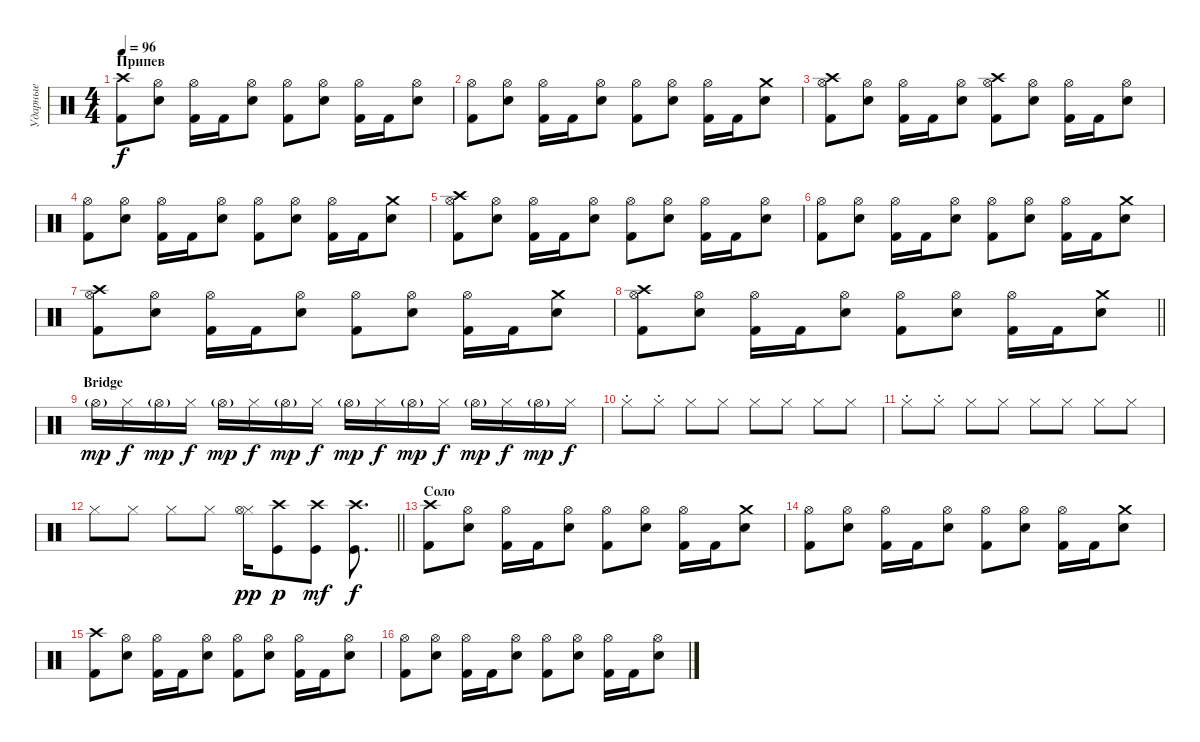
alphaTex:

\track ("Ударные" "Ударные") {instrument percussion}
\staff {score}
\articulation defaults
\ts (4 4)
\section ("" "Припев")
\tempo 96
\clef neutral
\ks c
("Crash high (hit)" "Kick (hit) 2").8{dy f} ("Hi-Hat (open)" "Electric Snare (hit)").8 ("Hi-Hat (open)" "Kick (hit) 2").16 "Kick (hit) 2".16 ("Hi-Hat (open)" "Electric Snare (hit)").8 ("Hi-Hat (open)" "Kick (hit) 2").8 ("Hi-Hat (open)" "Electric Snare (hit)").8 ("Hi-Hat (open)" "Kick (hit) 2").16 "Kick (hit) 2".16 ("Hi-Hat (open)" "Electric Snare (hit)").8 |
("Hi-Hat (open)" "Kick (hit) 2").8 ("Hi-Hat (open)" "Electric Snare (hit)").8 ("Hi-Hat (open)" "Kick (hit) 2").16 "Kick (hit) 2".16 ("Hi-Hat (open)" "Electric Snare (hit)").8 ("Hi-Hat (open)" "Kick (hit) 2").8 ("Hi-Hat (open)" "Electric Snare (hit)").8 ("Hi-Hat (open)" "Kick (hit) 2").16 "Kick (hit) 2".16 ("Crash medium (hit)" "Electric Snare (hit)").8 |
("Hi-Hat (open)" "Crash high (hit)" "Kick (hit) 2").8 ("Hi-Hat (open)" "Electric Snare (hit)").8 ("Hi-Hat (open)" "Kick (hit) 2").16 "Kick (hit) 2".16 ("Hi-Hat (open)" "Electric Snare (hit)").8 ("Hi-Hat (open)" "Crash high (hit)" "Kick (hit) 2").8 ("Hi-Hat (open)" "Electric Snare (hit)").8 ("Hi-Hat (open)" "Kick (hit) 2").16 "Kick (hit) 2".16 ("Hi-Hat (open)" "Electric Snare (hit)").8 |
("Hi-Hat (open)" "Kick (hit) 2").8 ("Hi-Hat (open)" "Electric Snare (hit)").8 ("Hi-Hat (open)" "Kick (hit) 2").16 "Kick (hit) 2".16 ("Hi-Hat (open)" "Electric Snare (hit)").8 ("Hi-Hat (open)" "Kick (hit) 2").8 ("Hi-Hat (open)" "Electric Snare (hit)").8 ("Hi-Hat (open)" "Kick (hit) 2").16 "Kick (hit) 2".16 ("Crash medium (hit)" "Electric Snare (hit)").8 |
("Hi-Hat (open)" "Crash high (hit)" "Kick (hit) 2").8 ("Hi-Hat (open)" "Electric Snare (hit)").8 ("Hi-Hat (open)" "Kick (hit) 2").16 "Kick (hit) 2".16 ("Hi-Hat (open)" "Electric Snare (hit)").8 ("Hi-Hat (open)" "Kick (hit) 2").8 ("Hi-Hat (open)" "Electric Snare (hit)").8 ("Hi-Hat (open)" "Kick (hit) 2").16 "Kick (hit) 2".16 ("Hi-Hat (open)" "Electric Snare (hit)").8 |
("Hi-Hat (open)" "Kick (hit) 2").8 ("Hi-Hat (open)" "Electric Snare (hit)").8 ("Hi-Hat (open)" "Kick (hit) 2").16 "Kick (hit) 2".16 ("Hi-Hat (open)" "Electric Snare (hit)").8 ("Hi-Hat (open)" "Kick (hit) 2").8 ("Hi-Hat (open)" "Electric Snare (hit)").8 ("Hi-Hat (open)" "Kick (hit) 2").16 "Kick (hit) 2".16 ("Crash medium (hit)" "Electric Snare (hit)").8 |
("Hi-Hat (open)" "Crash high (hit)" "Kick (hit) 2").8 ("Hi-Hat (open)" "Electric Snare (hit)").8 ("Hi-Hat (open)" "Kick (hit) 2").16 "Kick (hit) 2".16 ("Hi-Hat (open)" "Electric Snare (hit)").8 ("Hi-Hat (open)" "Kick (hit) 2").8 ("Hi-Hat (open)" "Electric Snare (hit)").8 ("Hi-Hat (open)" "Kick (hit) 2").16 "Kick (hit) 2".16 ("Crash medium (hit)" "Electric Snare (hit)").8 |
\barLineRight lightlight
("Hi-Hat (open)" "Crash high (hit)" "Kick (hit) 2").8 ("Hi-Hat (open)" "Electric Snare (hit)").8 ("Hi-Hat (open)" "Kick (hit) 2").16 "Kick (hit) 2".16 ("Hi-Hat (open)" "Electric Snare (hit)").8 ("Hi-Hat (open)" "Kick (hit) 2").8 ("Hi-Hat (open)" "Electric Snare (hit)").8 ("Hi-Hat (open)" "Kick (hit) 2").16 "Kick (hit) 2".16 ("Crash medium (hit)" "Electric Snare (hit)").8 |
\section ("" "Bridge")
"Hi-Hat (open)"{g}.16{dy mp} "Hi-Hat (closed)".16{dy f} "Hi-Hat (open)"{g}.16{dy mp} "Hi-Hat (closed)".16{dy f} "Hi-Hat (open)"{g}.16{dy mp} "Hi-Hat (closed)".16{dy f} "Hi-Hat (open)"{g}.16{dy mp} "Hi-Hat (closed)".16{dy f} "Hi-Hat (open)"{g}.16{dy mp} "Hi-Hat (closed)".16{dy f} "Hi-Hat (open)"{g}.16{dy mp} "Hi-Hat (closed)".16{dy f} "Hi-Hat (open)"{g}.16{dy mp} "Hi-Hat (closed)".16{dy f} "Hi-Hat (open)"{g}.16{dy mp} "Hi-Hat (closed)".16{dy f} |
"Hi-Hat (closed)"{st}.8 "Hi-Hat (closed)"{st}.8 "Hi-Hat (closed)".8 "Hi-Hat (closed)".8 "Hi-Hat (closed)".8 "Hi-Hat (closed)".8 "Hi-Hat (closed)".8 "Hi-Hat (closed)".8 |
"Hi-Hat (closed)"{st}.8 "Hi-Hat (closed)"{st}.8 "Hi-Hat (closed)".8 "Hi-Hat (closed)".8 "Hi-Hat (closed)".8 "Hi-Hat (closed)".8 "Hi-Hat (closed)".8 "Hi-Hat (closed)".8 |
\barLineRight lightlight "Hi-Hat (closed)".8 "Hi-Hat (closed)".8 "Hi-Hat (closed)".8 "Hi-Hat (closed)".8
("Hi-Hat (closed)" "Hi-Hat (open)").16{dy pp} ("Kick (hit)" "Crash high (hit)").8{dy p} ("Kick (hit)" "Crash high (hit)").8{dy mf} ("Kick (hit)" "Crash high (hit)").8{d dy f} |
\section ("" "Соло")
("Crash high (hit)" "Kick (hit) 2").8 ("Hi-Hat (open)" "Electric Snare (hit)").8 ("Hi-Hat (open)" "Kick (hit) 2").16 "Kick (hit) 2".16 ("Hi-Hat (open)" "Electric Snare (hit)").8 ("Hi-Hat (open)" "Kick (hit) 2").8 ("Hi-Hat (open)" "Electric Snare (hit)").8 ("Hi-Hat (open)" "Kick (hit) 2").16 "Kick (hit) 2".16 ("Crash medium (hit)" "Electric Snare (hit)").8 |
("Hi-Hat (open)" "Kick (hit) 2").8 ("Hi-Hat (open)" "Electric Snare (hit)").8 ("Hi-Hat (open)" "Kick (hit) 2").16 "Kick (hit) 2".16 ("Hi-Hat (open)" "Electric Snare (hit)").8 ("Hi-Hat (open)" "Kick (hit) 2").8 ("Hi-Hat (open)" "Electric Snare (hit)").8 ("Hi-Hat (open)" "Kick (hit) 2").16 "Kick (hit) 2".16 ("Crash medium (hit)" "Electric Snare (hit)").8 |
("Crash high (hit)" "Kick (hit) 2").8 ("Hi-Hat (open)" "Electric Snare (hit)").8 ("Hi-Hat (open)" "Kick (hit) 2").16 "Kick (hit) 2".16 ("Hi-Hat (open)" "Electric Snare (hit)").8 ("Hi-Hat (open)" "Kick (hit) 2").8 ("Hi-Hat (open)" "Electric Snare (hit)").8 ("Hi-Hat (open)" "Kick (hit) 2").16 "Kick (hit) 2".16 ("Hi-Hat (open)" "Electric Snare (hit)").8 |
("Hi-Hat (open)" "Kick (hit) 2").8 ("Hi-Hat (open)" "Electric Snare (hit)").8 ("Hi-Hat (open)" "Kick (hit) 2").16 "Kick (hit) 2".16 ("Hi-Hat (open)" "Electric Snare (hit)").8 ("Hi-Hat (open)" "Kick (hit) 2").8 ("Hi-Hat (open)" "Electric Snare (hit)").8 ("Hi-Hat (open)" "Kick (hit) 2").16 "Kick (hit) 2".16 ("Hi-Hat (open)" "Electric Snare (hit)").8
